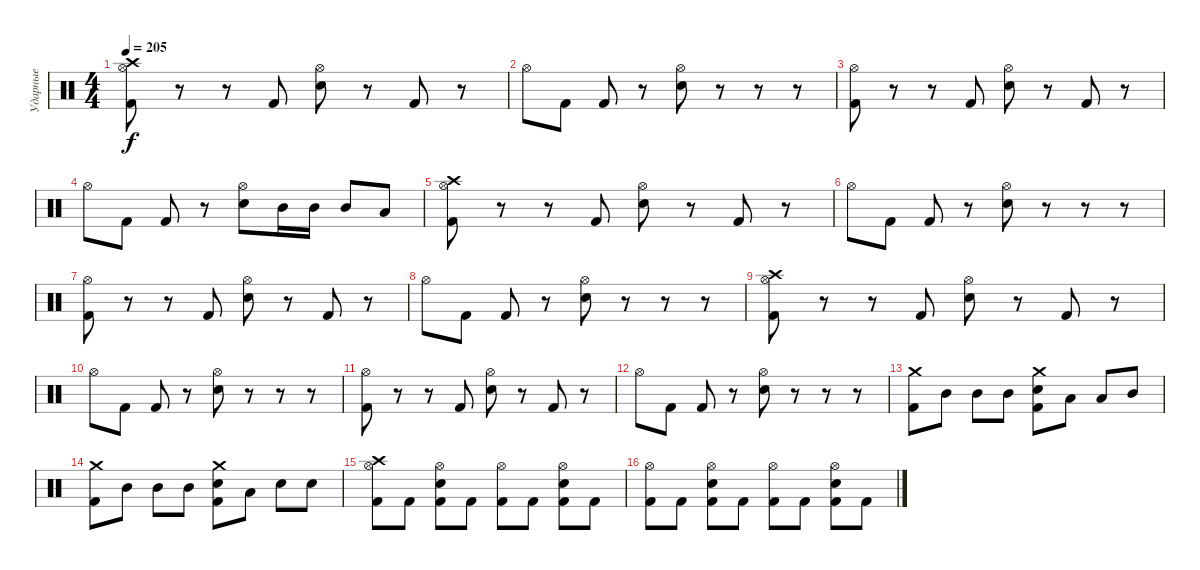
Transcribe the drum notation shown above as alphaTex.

\track ("Ударные" "Ударные") {instrument percussion}
\staff {score}
\articulation defaults
\ts (4 4)
\tempo 205
\clef neutral
\ks c
("Hi-Hat (open)" "Crash high (hit)" "Kick (hit) 2").8{dy f} r.8 r.8 "Kick (hit) 2".8 ("Hi-Hat (open)" "Snare (hit) 2").8 r.8 "Kick (hit) 2".8 r.8 |
"Hi-Hat (open)".8 "Kick (hit) 2".8 "Kick (hit) 2".8 r.8 ("Hi-Hat (open)" "Snare (hit) 2").8 r.8 r.8 r.8 |
("Hi-Hat (open)" "Kick (hit) 2").8 r.8 r.8 "Kick (hit) 2".8 ("Hi-Hat (open)" "Snare (hit) 2").8 r.8 "Kick (hit) 2".8 r.8 |
"Hi-Hat (open)".8 "Kick (hit) 2".8 "Kick (hit) 2".8 r.8 ("Hi-Hat (open)" "Snare (hit) 2").8 "Mid Tom (hit)".16 "Mid Tom (hit)".16 "Mid Tom (hit)".8 "Low Tom (hit)".8 |
("Hi-Hat (open)" "Crash high (hit)" "Kick (hit) 2").8 r.8 r.8 "Kick (hit) 2".8 ("Hi-Hat (open)" "Snare (hit) 2").8 r.8 "Kick (hit) 2".8 r.8 |
"Hi-Hat (open)".8 "Kick (hit) 2".8 "Kick (hit) 2".8 r.8 ("Hi-Hat (open)" "Snare (hit) 2").8 r.8 r.8 r.8 |
("Hi-Hat (open)" "Kick (hit) 2").8 r.8 r.8 "Kick (hit) 2".8 ("Hi-Hat (open)" "Snare (hit) 2").8 r.8 "Kick (hit) 2".8 r.8 |
"Hi-Hat (open)".8 "Kick (hit) 2".8 "Kick (hit) 2".8 r.8 ("Hi-Hat (open)" "Snare (hit) 2").8 r.8 r.8 r.8 |
("Hi-Hat (open)" "Crash high (hit)" "Kick (hit) 2").8 r.8 r.8 "Kick (hit) 2".8 ("Hi-Hat (open)" "Snare (hit) 2").8 r.8 "Kick (hit) 2".8 r.8 |
"Hi-Hat (open)".8 "Kick (hit) 2".8 "Kick (hit) 2".8 r.8 ("Hi-Hat (open)" "Snare (hit) 2").8 r.8 r.8 r.8 |
("Hi-Hat (open)" "Kick (hit) 2").8 r.8 r.8 "Kick (hit) 2".8 ("Hi-Hat (open)" "Snare (hit) 2").8 r.8 "Kick (hit) 2".8 r.8 |
"Hi-Hat (open)".8 "Kick (hit) 2".8 "Kick (hit) 2".8 r.8 ("Hi-Hat (open)" "Snare (hit) 2").8 r.8 r.8 r.8 |
("Crash medium (hit)" "Kick (hit) 2").8 "Mid Tom (hit)".8 "Mid Tom (hit)".8 "Mid Tom (hit)".8 ("Snare (hit) 2" "Crash medium (hit)" "Kick (hit) 2").8 "Low Tom (hit)".8 "Low Tom (hit)".8 "Mid Tom (hit)".8 |
("Crash medium (hit)" "Kick (hit) 2").8 "Mid Tom (hit)".8 "Mid Tom (hit)".8 "Mid Tom (hit)".8 ("Snare (hit) 2" "Crash medium (hit)" "Kick (hit) 2").8 "Low Tom (hit)".8 "Snare (hit) 2".8 "Snare (hit) 2".8 |
("Hi-Hat (open)" "Crash high (hit)" "Kick (hit) 2").8 "Kick (hit) 2".8 ("Hi-Hat (open)" "Snare (hit) 2" "Kick (hit) 2").8 "Kick (hit) 2".8 ("Hi-Hat (open)" "Kick (hit) 2").8 "Kick (hit) 2".8 ("Hi-Hat (open)" "Snare (hit) 2" "Kick (hit) 2").8 "Kick (hit) 2".8 |
("Hi-Hat (open)" "Kick (hit) 2").8 "Kick (hit) 2".8 ("Hi-Hat (open)" "Snare (hit) 2" "Kick (hit) 2").8 "Kick (hit) 2".8 ("Hi-Hat (open)" "Kick (hit) 2").8 "Kick (hit) 2".8 ("Hi-Hat (open)" "Snare (hit) 2" "Kick (hit) 2").8 "Kick (hit) 2".8
